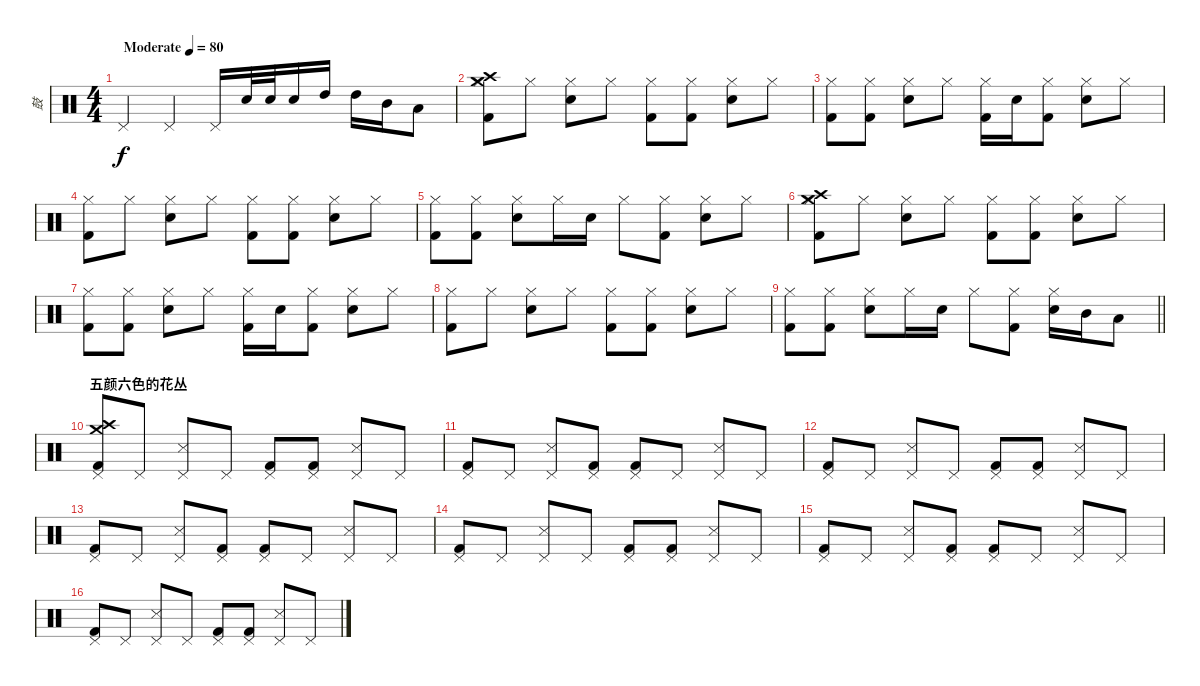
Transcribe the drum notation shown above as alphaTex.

\track ("鼓" "鼓") {instrument percussion}
\staff {score}
\articulation defaults
\ts (4 4)
\section ("" "")
\tempo (80 "Moderate")
\clef neutral
\ks c "Pedal Hi-Hat (hit)".4{dy f} "Pedal Hi-Hat (hit)".4 "Pedal Hi-Hat (hit)".16 "Electric Snare (hit)".32 "Electric Snare (hit)".32 "Electric Snare (hit)".16 "High Tom (hit)".16 "High Tom (hit)".16 "Mid Tom (hit)".16 "Low Tom (hit)".8
|
("Hi-Hat (closed)" "Crash medium (hit)" "Crash high (hit)" "Kick (hit) 2").8 "Hi-Hat (closed)".8 ("Hi-Hat (closed)" "Electric Snare (hit)").8 "Hi-Hat (closed)".8 ("Hi-Hat (closed)" "Kick (hit) 2").8 ("Hi-Hat (closed)" "Kick (hit) 2").8 ("Hi-Hat (closed)" "Electric Snare (hit)").8 "Hi-Hat (closed)".8 |
("Hi-Hat (closed)" "Kick (hit) 2").8 ("Hi-Hat (closed)" "Kick (hit) 2").8 ("Hi-Hat (closed)" "Electric Snare (hit)").8 "Hi-Hat (closed)".8 ("Hi-Hat (closed)" "Kick (hit) 2").16 "Electric Snare (hit)".16 ("Hi-Hat (closed)" "Kick (hit) 2").8 ("Hi-Hat (closed)" "Electric Snare (hit)").8 "Hi-Hat (closed)".8 |
("Hi-Hat (closed)" "Kick (hit) 2").8 "Hi-Hat (closed)".8 ("Hi-Hat (closed)" "Electric Snare (hit)").8 "Hi-Hat (closed)".8 ("Hi-Hat (closed)" "Kick (hit) 2").8 ("Hi-Hat (closed)" "Kick (hit) 2").8 ("Hi-Hat (closed)" "Electric Snare (hit)").8 "Hi-Hat (closed)".8 |
("Hi-Hat (closed)" "Kick (hit) 2").8 ("Hi-Hat (closed)" "Kick (hit) 2").8 ("Hi-Hat (closed)" "Electric Snare (hit)").8 "Hi-Hat (closed)".16 "Electric Snare (hit)".16 "Hi-Hat (closed)".8 ("Hi-Hat (closed)" "Kick (hit) 2").8 ("Hi-Hat (closed)" "Electric Snare (hit)").8 "Hi-Hat (closed)".8 |
("Hi-Hat (closed)" "Crash medium (hit)" "Crash high (hit)" "Kick (hit) 2").8 "Hi-Hat (closed)".8 ("Hi-Hat (closed)" "Electric Snare (hit)").8 "Hi-Hat (closed)".8 ("Hi-Hat (closed)" "Kick (hit) 2").8 ("Hi-Hat (closed)" "Kick (hit) 2").8 ("Hi-Hat (closed)" "Electric Snare (hit)").8 "Hi-Hat (closed)".8 |
("Hi-Hat (closed)" "Kick (hit) 2").8 ("Hi-Hat (closed)" "Kick (hit) 2").8 ("Hi-Hat (closed)" "Electric Snare (hit)").8 "Hi-Hat (closed)".8 ("Hi-Hat (closed)" "Kick (hit) 2").16 "Electric Snare (hit)".16 ("Hi-Hat (closed)" "Kick (hit) 2").8 ("Hi-Hat (closed)" "Electric Snare (hit)").8 "Hi-Hat (closed)".8 |
("Hi-Hat (closed)" "Kick (hit) 2").8 "Hi-Hat (closed)".8 ("Hi-Hat (closed)" "Electric Snare (hit)").8 "Hi-Hat (closed)".8 ("Hi-Hat (closed)" "Kick (hit) 2").8 ("Hi-Hat (closed)" "Kick (hit) 2").8 ("Hi-Hat (closed)" "Electric Snare (hit)").8 "Hi-Hat (closed)".8 |
\barLineRight lightlight
("Hi-Hat (closed)" "Kick (hit) 2").8 ("Hi-Hat (closed)" "Kick (hit) 2").8 ("Hi-Hat (closed)" "Electric Snare (hit)").8 "Hi-Hat (closed)".16 "Electric Snare (hit)".16 "Hi-Hat (closed)".8 ("Hi-Hat (closed)" "Kick (hit) 2").8 ("Hi-Hat (closed)" "Electric Snare (hit)").16 "Mid Tom (hit)".16 "Low Tom (hit)".8 |
\section ("" "五颜六色的花丛")
("Pedal Hi-Hat (hit)" "Crash medium (hit)" "Crash high (hit)" "Kick (hit) 2").8 "Pedal Hi-Hat (hit)".8 ("Pedal Hi-Hat (hit)" "Metronome (hit)").8 "Pedal Hi-Hat (hit)".8 ("Pedal Hi-Hat (hit)" "Kick (hit) 2").8 ("Pedal Hi-Hat (hit)" "Kick (hit) 2").8 ("Pedal Hi-Hat (hit)" "Metronome (hit)").8 "Pedal Hi-Hat (hit)".8 |
("Pedal Hi-Hat (hit)" "Kick (hit) 2").8 "Pedal Hi-Hat (hit)".8 ("Pedal Hi-Hat (hit)" "Metronome (hit)").8 ("Pedal Hi-Hat (hit)" "Kick (hit) 2").8 ("Pedal Hi-Hat (hit)" "Kick (hit) 2").8 "Pedal Hi-Hat (hit)".8 ("Pedal Hi-Hat (hit)" "Metronome (hit)").8 "Pedal Hi-Hat (hit)".8 |
("Pedal Hi-Hat (hit)" "Kick (hit) 2").8 "Pedal Hi-Hat (hit)".8 ("Pedal Hi-Hat (hit)" "Metronome (hit)").8 "Pedal Hi-Hat (hit)".8 ("Pedal Hi-Hat (hit)" "Kick (hit) 2").8 ("Pedal Hi-Hat (hit)" "Kick (hit) 2").8 ("Pedal Hi-Hat (hit)" "Metronome (hit)").8 "Pedal Hi-Hat (hit)".8 |
("Pedal Hi-Hat (hit)" "Kick (hit) 2").8 "Pedal Hi-Hat (hit)".8 ("Pedal Hi-Hat (hit)" "Metronome (hit)").8 ("Pedal Hi-Hat (hit)" "Kick (hit) 2").8 ("Pedal Hi-Hat (hit)" "Kick (hit) 2").8 "Pedal Hi-Hat (hit)".8 ("Pedal Hi-Hat (hit)" "Metronome (hit)").8 "Pedal Hi-Hat (hit)".8 |
("Pedal Hi-Hat (hit)" "Kick (hit) 2").8 "Pedal Hi-Hat (hit)".8 ("Pedal Hi-Hat (hit)" "Metronome (hit)").8 "Pedal Hi-Hat (hit)".8 ("Pedal Hi-Hat (hit)" "Kick (hit) 2").8 ("Pedal Hi-Hat (hit)" "Kick (hit) 2").8 ("Pedal Hi-Hat (hit)" "Metronome (hit)").8 "Pedal Hi-Hat (hit)".8 |
("Pedal Hi-Hat (hit)" "Kick (hit) 2").8 "Pedal Hi-Hat (hit)".8 ("Pedal Hi-Hat (hit)" "Metronome (hit)").8 ("Pedal Hi-Hat (hit)" "Kick (hit) 2").8 ("Pedal Hi-Hat (hit)" "Kick (hit) 2").8 "Pedal Hi-Hat (hit)".8 ("Pedal Hi-Hat (hit)" "Metronome (hit)").8 "Pedal Hi-Hat (hit)".8 |
("Pedal Hi-Hat (hit)" "Kick (hit) 2").8 "Pedal Hi-Hat (hit)".8 ("Pedal Hi-Hat (hit)" "Metronome (hit)").8 "Pedal Hi-Hat (hit)".8 ("Pedal Hi-Hat (hit)" "Kick (hit) 2").8 ("Pedal Hi-Hat (hit)" "Kick (hit) 2").8 ("Pedal Hi-Hat (hit)" "Metronome (hit)").8 "Pedal Hi-Hat (hit)".8
